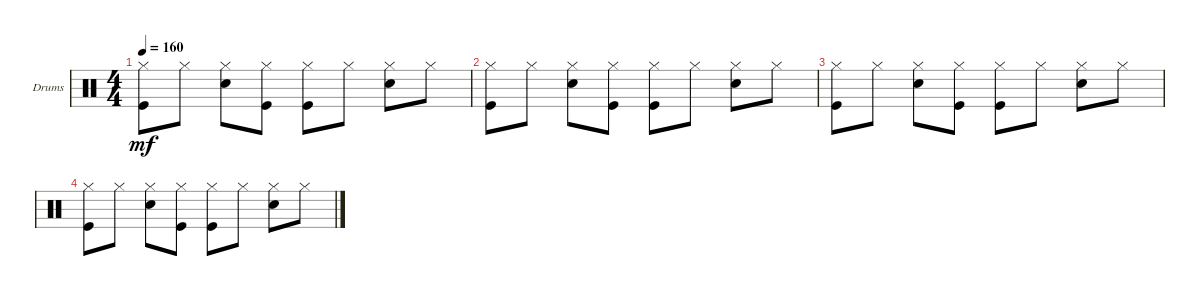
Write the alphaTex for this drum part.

\defaultSystemsLayout 4
\bracketExtendMode groupsimilarinstruments
\firstSystemTrackNameOrientation horizontal
\otherSystemsTrackNameOrientation horizontal
\track ("Drumkit" "Drums") {instrument percussion}
\staff {score}
\articulation defaults
\ts (4 4)
\tempo 160
\clef neutral
\scale
0.333333
\ks c
("Hi-Hat (closed)" "Kick (hit)").8{dy mf} "Hi-Hat (closed)".8 ("Hi-Hat (closed)" "Snare (hit) 2").8 ("Hi-Hat (closed)" "Kick (hit)").8 ("Hi-Hat (closed)" "Kick (hit)").8 "Hi-Hat (closed)".8 ("Hi-Hat (closed)" "Snare (hit) 2").8 "Hi-Hat (closed)".8 |
\scale
0.333333 ("Hi-Hat (closed)" "Kick (hit)").8 "Hi-Hat (closed)".8 ("Hi-Hat (closed)" "Snare (hit) 2").8 ("Hi-Hat (closed)" "Kick (hit)").8 ("Hi-Hat (closed)" "Kick (hit)").8 "Hi-Hat (closed)".8 ("Hi-Hat (closed)" "Snare (hit) 2").8 "Hi-Hat (closed)".8 |
\scale
0.333333 ("Hi-Hat (closed)" "Kick (hit)").8 "Hi-Hat (closed)".8 ("Hi-Hat (closed)" "Snare (hit) 2").8 ("Hi-Hat (closed)" "Kick (hit)").8 ("Hi-Hat (closed)" "Kick (hit)").8 "Hi-Hat (closed)".8 ("Hi-Hat (closed)" "Snare (hit) 2").8 "Hi-Hat (closed)".8 |
("Hi-Hat (closed)" "Kick (hit)").8 "Hi-Hat (closed)".8 ("Hi-Hat (closed)" "Snare (hit) 2").8 ("Hi-Hat (closed)" "Kick (hit)").8 ("Hi-Hat (closed)" "Kick (hit)").8 "Hi-Hat (closed)".8 ("Hi-Hat (closed)" "Snare (hit) 2").8 "Hi-Hat (closed)".8
